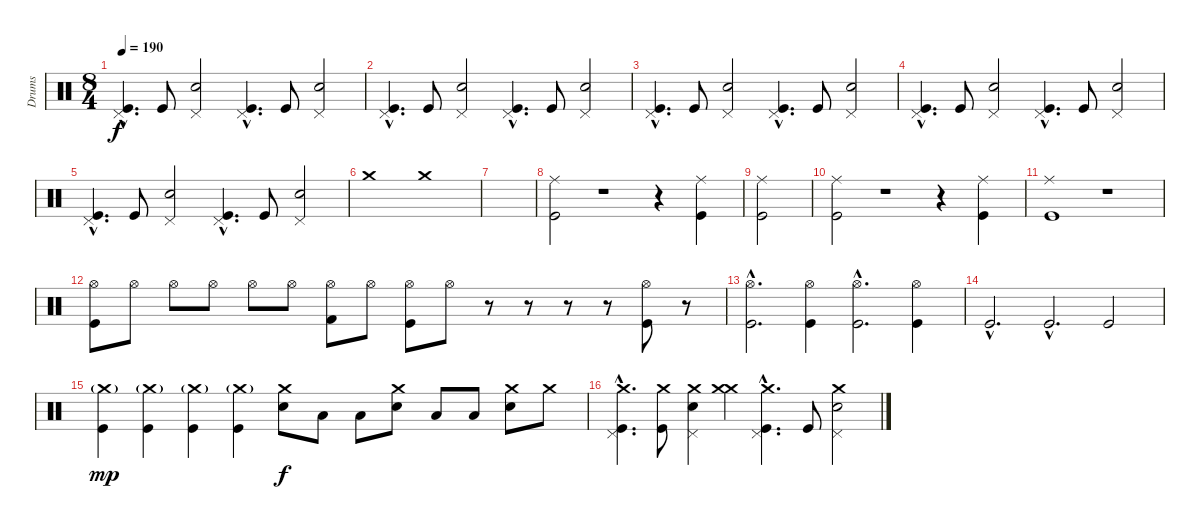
\track ("Drums" "Drums") {instrument percussion}
\staff {score}
\articulation defaults
\ts (8 4)
\tempo 190
\clef neutral
\ks c
("Pedal Hi-Hat (hit)"{hac} "Kick (hit)"{hac}).4{d dy f} "Kick (hit)".8 ("Pedal Hi-Hat (hit)" "Electric Snare (hit)").2 ("Pedal Hi-Hat (hit)"{hac} "Kick (hit)"{hac}).4{d} "Kick (hit)".8 ("Pedal Hi-Hat (hit)" "Electric Snare (hit)").2 |
("Pedal Hi-Hat (hit)"{hac} "Kick (hit)"{hac}).4{d} "Kick (hit)".8 ("Pedal Hi-Hat (hit)" "Electric Snare (hit)").2 ("Pedal Hi-Hat (hit)"{hac} "Kick (hit)"{hac}).4{d} "Kick (hit)".8 ("Pedal Hi-Hat (hit)" "Electric Snare (hit)").2 |
("Pedal Hi-Hat (hit)"{hac} "Kick (hit)"{hac}).4{d} "Kick (hit)".8 ("Pedal Hi-Hat (hit)" "Electric Snare (hit)").2 ("Pedal Hi-Hat (hit)"{hac} "Kick (hit)"{hac}).4{d} "Kick (hit)".8 ("Pedal Hi-Hat (hit)" "Electric Snare (hit)").2 |
("Pedal Hi-Hat (hit)"{hac} "Kick (hit)"{hac}).4{d} "Kick (hit)".8 ("Pedal Hi-Hat (hit)" "Electric Snare (hit)").2 ("Pedal Hi-Hat (hit)"{hac} "Kick (hit)"{hac}).4{d} "Kick (hit)".8 ("Pedal Hi-Hat (hit)" "Electric Snare (hit)").2 |
("Pedal Hi-Hat (hit)"{hac} "Kick (hit)"{hac}).4{d} "Kick (hit)".8 ("Pedal Hi-Hat (hit)" "Electric Snare (hit)").2 ("Pedal Hi-Hat (hit)"{hac} "Kick (hit)"{hac}).4{d} "Kick (hit)".8 ("Pedal Hi-Hat (hit)" "Electric Snare (hit)").2 |
"Crash medium (hit)".1 "Crash medium (hit)".1 |
|
("Ride (middle)" "Kick (hit)").2 r.1 r.4 ("Ride (middle)" "Kick (hit)").4 |
("Ride (middle)" "Kick (hit)").2 |
("Ride (middle)" "Kick (hit)").2 r.1 r.4 ("Ride (middle)" "Kick (hit)").4 |
("Ride (middle)" "Kick (hit)").1 r.1{volume 0} |
("Hi-Hat (open)" "Kick (hit)").8{volume 13} "Hi-Hat (open)".8 "Hi-Hat (open)".8 "Hi-Hat (open)".8 "Hi-Hat (open)".8 "Hi-Hat (open)".8 ("Hi-Hat (open)" "Kick (hit) 2").8 "Hi-Hat (open)".8 ("Hi-Hat (open)" "Kick (hit)").8 "Hi-Hat (open)".8 r.8 r.8 r.8 r.8 ("Hi-Hat (open)" "Kick (hit)").8 r.8 |
("Hi-Hat (open)"{hac} "Kick (hit)"{hac}).2{d} ("Hi-Hat (open)" "Kick (hit)").4 ("Hi-Hat (open)"{hac} "Kick (hit)"{hac}).2{d} ("Hi-Hat (open)" "Kick (hit)").4 |
"Kick (hit)"{hac}.2{d} "Kick (hit)"{hac}.2{d} "Kick (hit)".2 |
("Crash medium (hit)"{g} "Kick (hit)").4{dy mp} ("Crash medium (hit)"{g} "Kick (hit)").4 ("Crash medium (hit)"{g} "Kick (hit)").4 ("Crash medium (hit)"{g} "Kick (hit)").4 ("Crash medium (hit)" "Electric Snare (hit)").8{dy f} "Low Tom (hit)".8 "Low Tom (hit)".8 ("Crash medium (hit)" "Electric Snare (hit)").8 "Low Tom (hit)".8 "Low Tom (hit)".8 ("Crash medium (hit)" "Electric Snare (hit)").8 "Crash medium (hit)".8 |
("Crash medium (hit)"{hac} "Pedal Hi-Hat (hit)"{hac} "Kick (hit)"{hac}).4{d} ("Crash medium (hit)" "Kick (hit)").8 ("Pedal Hi-Hat (hit)" "Electric Snare (hit)" "Crash medium (hit)").4 ("Crash medium (hit)" "Crash medium (hit)").4 ("Pedal Hi-Hat (hit)"{hac} "Crash medium (hit)"{hac} "Kick (hit)"{hac}).4{d} "Kick (hit)".8 ("Pedal Hi-Hat (hit)" "Electric Snare (hit)" "Crash medium (hit)").2
